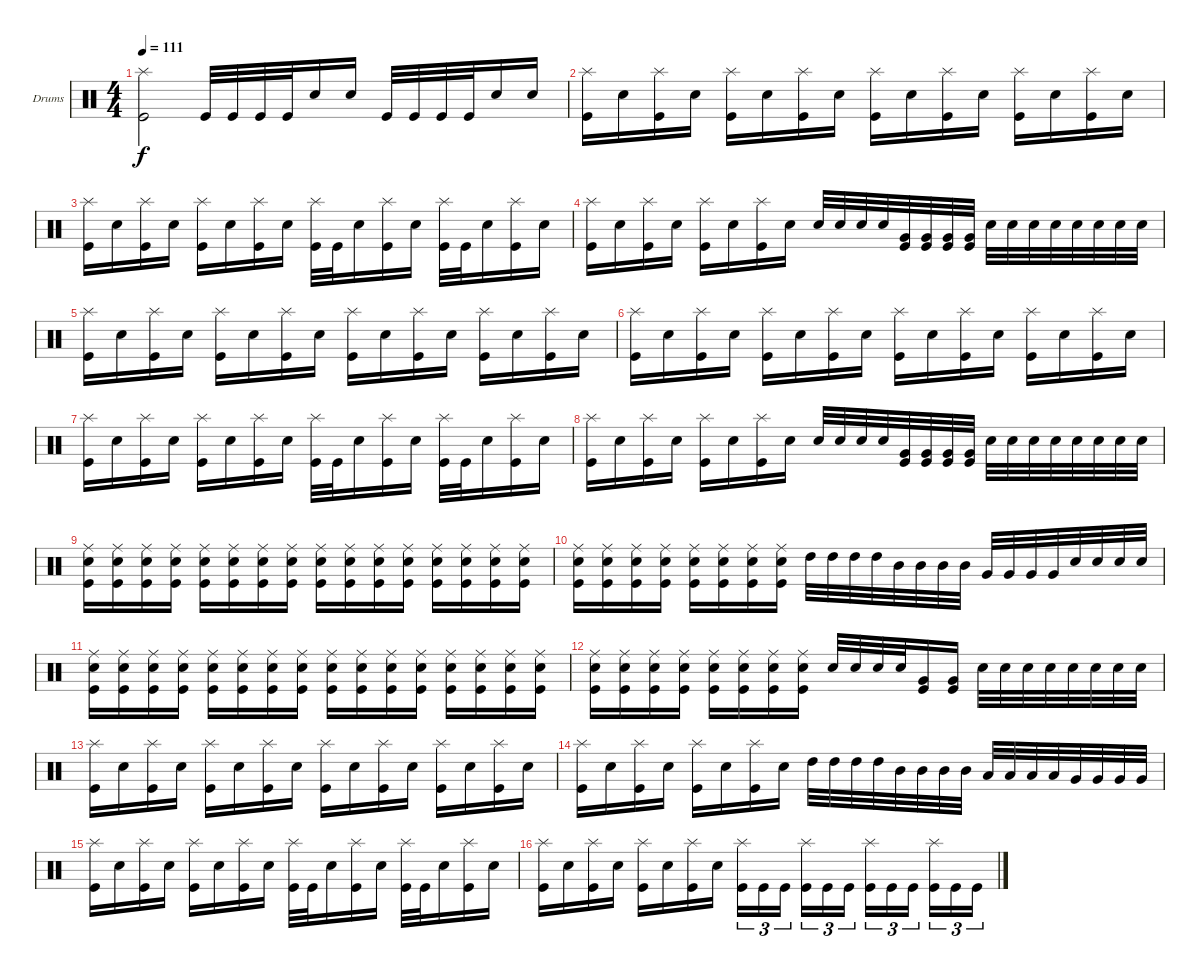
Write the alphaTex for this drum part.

\bracketExtendMode groupsimilarinstruments
\firstSystemTrackNameOrientation horizontal
\otherSystemsTrackNameOrientation horizontal
\track ("Drumkit" "Drums") {instrument percussion}
\staff {score}
\articulation defaults
\ts (4 4)
\tempo 111
\clef neutral
\ks c
("Splash (hit)" "Kick (hit)").2{dy f} "Kick (hit)".32 "Kick (hit)".32 "Kick (hit)".32 "Kick (hit)".32 "Snare (hit) 2".16 "Snare (hit) 2".16 "Kick (hit)".32 "Kick (hit)".32 "Kick (hit)".32 "Kick (hit)".32 "Snare (hit) 2".16 "Snare (hit) 2".16 |
("Splash (hit)" "Kick (hit)").16 "Snare (hit) 2".16 ("Splash (hit)" "Kick (hit)").16 "Snare (hit) 2".16 ("Splash (hit)" "Kick (hit)").16 "Snare (hit) 2".16 ("Splash (hit)" "Kick (hit)").16 "Snare (hit) 2".16 ("Splash (hit)" "Kick (hit)").16 "Snare (hit) 2".16 ("Splash (hit)" "Kick (hit)").16 "Snare (hit) 2".16 ("Splash (hit)" "Kick (hit)").16 "Snare (hit) 2".16 ("Splash (hit)" "Kick (hit)").16 "Snare (hit) 2".16 |
("Splash (hit)" "Kick (hit)").16 "Snare (hit) 2".16 ("Splash (hit)" "Kick (hit)").16 "Snare (hit) 2".16 ("Splash (hit)" "Kick (hit)").16 "Snare (hit) 2".16 ("Splash (hit)" "Kick (hit)").16 "Snare (hit) 2".16 ("Splash (hit)" "Kick (hit)").32 "Kick (hit)".32 "Snare (hit) 2".16 ("Splash (hit)" "Kick (hit)").16 "Snare (hit) 2".16 ("Splash (hit)" "Kick (hit)").32 "Kick (hit)".32 "Snare (hit) 2".16 ("Splash (hit)" "Kick (hit)").16 "Snare (hit) 2".16 |
("Splash (hit)" "Kick (hit)").16 "Snare (hit) 2".16 ("Splash (hit)" "Kick (hit)").16 "Snare (hit) 2".16 ("Splash (hit)" "Kick (hit)").16 "Snare (hit) 2".16 ("Splash (hit)" "Kick (hit)").16 "Snare (hit) 2".16 "Snare (hit) 2".32 "Snare (hit) 2".32 "Snare (hit) 2".32 "Snare (hit) 2".32 ("Very Low Tom (hit)" "Kick (hit)").32 ("Very Low Tom (hit)" "Kick (hit)").32 ("Very Low Tom (hit)" "Kick (hit)").32 ("Very Low Tom (hit)" "Kick (hit)").32 "Snare (hit) 2".32 "Snare (hit) 2".32 "Snare (hit) 2".32 "Snare (hit) 2".32 "Snare (hit) 2".32 "Snare (hit) 2".32 "Snare (hit) 2".32 "Snare (hit) 2".32 |
("Splash (hit)" "Kick (hit)").16 "Snare (hit) 2".16 ("Splash (hit)" "Kick (hit)").16 "Snare (hit) 2".16 ("Splash (hit)" "Kick (hit)").16 "Snare (hit) 2".16 ("Splash (hit)" "Kick (hit)").16 "Snare (hit) 2".16 ("Splash (hit)" "Kick (hit)").16 "Snare (hit) 2".16 ("Splash (hit)" "Kick (hit)").16 "Snare (hit) 2".16 ("Splash (hit)" "Kick (hit)").16 "Snare (hit) 2".16 ("Splash (hit)" "Kick (hit)").16 "Snare (hit) 2".16 |
("Splash (hit)" "Kick (hit)").16 "Snare (hit) 2".16 ("Splash (hit)" "Kick (hit)").16 "Snare (hit) 2".16 ("Splash (hit)" "Kick (hit)").16 "Snare (hit) 2".16 ("Splash (hit)" "Kick (hit)").16 "Snare (hit) 2".16 ("Splash (hit)" "Kick (hit)").16 "Snare (hit) 2".16 ("Splash (hit)" "Kick (hit)").16 "Snare (hit) 2".16 ("Splash (hit)" "Kick (hit)").16 "Snare (hit) 2".16 ("Splash (hit)" "Kick (hit)").16 "Snare (hit) 2".16 |
("Splash (hit)" "Kick (hit)").16 "Snare (hit) 2".16 ("Splash (hit)" "Kick (hit)").16 "Snare (hit) 2".16 ("Splash (hit)" "Kick (hit)").16 "Snare (hit) 2".16 ("Splash (hit)" "Kick (hit)").16 "Snare (hit) 2".16 ("Splash (hit)" "Kick (hit)").32 "Kick (hit)".32 "Snare (hit) 2".16 ("Splash (hit)" "Kick (hit)").16 "Snare (hit) 2".16 ("Splash (hit)" "Kick (hit)").32 "Kick (hit)".32 "Snare (hit) 2".16 ("Splash (hit)" "Kick (hit)").16 "Snare (hit) 2".16 |
("Splash (hit)" "Kick (hit)").16 "Snare (hit) 2".16 ("Splash (hit)" "Kick (hit)").16 "Snare (hit) 2".16 ("Splash (hit)" "Kick (hit)").16 "Snare (hit) 2".16 ("Splash (hit)" "Kick (hit)").16 "Snare (hit) 2".16 "Snare (hit) 2".32 "Snare (hit) 2".32 "Snare (hit) 2".32 "Snare (hit) 2".32 ("Very Low Tom (hit)" "Kick (hit)").32 ("Very Low Tom (hit)" "Kick (hit)").32 ("Very Low Tom (hit)" "Kick (hit)").32 ("Very Low Tom (hit)" "Kick (hit)").32 "Snare (hit) 2".32 "Snare (hit) 2".32 "Snare (hit) 2".32 "Snare (hit) 2".32 "Snare (hit) 2".32 "Snare (hit) 2".32 "Snare (hit) 2".32 "Snare (hit) 2".32 |
("Ride (middle)" "Snare (hit) 2" "Kick (hit)").16 ("Ride (middle)" "Snare (hit) 2" "Kick (hit)").16 ("Ride (middle)" "Snare (hit) 2" "Kick (hit)").16 ("Ride (middle)" "Snare (hit) 2" "Kick (hit)").16 ("Ride (middle)" "Snare (hit) 2" "Kick (hit)").16 ("Ride (middle)" "Snare (hit) 2" "Kick (hit)").16 ("Ride (middle)" "Snare (hit) 2" "Kick (hit)").16 ("Ride (middle)" "Snare (hit) 2" "Kick (hit)").16 ("Ride (middle)" "Snare (hit) 2" "Kick (hit)").16 ("Ride (middle)" "Snare (hit) 2" "Kick (hit)").16 ("Ride (middle)" "Snare (hit) 2" "Kick (hit)").16 ("Ride (middle)" "Snare (hit) 2" "Kick (hit)").16 ("Ride (middle)" "Snare (hit) 2" "Kick (hit)").16 ("Ride (middle)" "Snare (hit) 2" "Kick (hit)").16 ("Ride (middle)" "Snare (hit) 2" "Kick (hit)").16 ("Ride (middle)" "Snare (hit) 2" "Kick (hit)").16 |
("Ride (middle)" "Snare (hit) 2" "Kick (hit)").16 ("Ride (middle)" "Snare (hit) 2" "Kick (hit)").16 ("Ride (middle)" "Snare (hit) 2" "Kick (hit)").16 ("Ride (middle)" "Snare (hit) 2" "Kick (hit)").16 ("Ride (middle)" "Snare (hit) 2" "Kick (hit)").16 ("Ride (middle)" "Snare (hit) 2" "Kick (hit)").16 ("Ride (middle)" "Snare (hit) 2" "Kick (hit)").16 ("Ride (middle)" "Snare (hit) 2" "Kick (hit)").16 "High Tom (hit)".32 "High Tom (hit)".32 "High Tom (hit)".32 "High Tom (hit)".32 "Mid Tom (hit)".32 "Mid Tom (hit)".32 "Mid Tom (hit)".32 "Mid Tom (hit)".32 "Very Low Tom (hit)".32 "Very Low Tom (hit)".32 "Very Low Tom (hit)".32 "Very Low Tom (hit)".32 "Snare (hit) 2".32 "Snare (hit) 2".32 "Snare (hit) 2".32 "Snare (hit) 2".32 |
("Ride (middle)" "Snare (hit) 2" "Kick (hit)").16 ("Ride (middle)" "Snare (hit) 2" "Kick (hit)").16 ("Ride (middle)" "Snare (hit) 2" "Kick (hit)").16 ("Ride (middle)" "Snare (hit) 2" "Kick (hit)").16 ("Ride (middle)" "Snare (hit) 2" "Kick (hit)").16 ("Ride (middle)" "Snare (hit) 2" "Kick (hit)").16 ("Ride (middle)" "Snare (hit) 2" "Kick (hit)").16 ("Ride (middle)" "Snare (hit) 2" "Kick (hit)").16 ("Ride (middle)" "Snare (hit) 2" "Kick (hit)").16 ("Ride (middle)" "Snare (hit) 2" "Kick (hit)").16 ("Ride (middle)" "Snare (hit) 2" "Kick (hit)").16 ("Ride (middle)" "Snare (hit) 2" "Kick (hit)").16 ("Ride (middle)" "Snare (hit) 2" "Kick (hit)").16 ("Ride (middle)" "Snare (hit) 2" "Kick (hit)").16 ("Ride (middle)" "Snare (hit) 2" "Kick (hit)").16 ("Ride (middle)" "Snare (hit) 2" "Kick (hit)").16 |
("Ride (middle)" "Snare (hit) 2" "Kick (hit)").16 ("Ride (middle)" "Snare (hit) 2" "Kick (hit)").16 ("Ride (middle)" "Snare (hit) 2" "Kick (hit)").16 ("Ride (middle)" "Snare (hit) 2" "Kick (hit)").16 ("Ride (middle)" "Snare (hit) 2" "Kick (hit)").16 ("Ride (middle)" "Snare (hit) 2" "Kick (hit)").16 ("Ride (middle)" "Snare (hit) 2" "Kick (hit)").16 ("Ride (middle)" "Snare (hit) 2" "Kick (hit)").16 "Snare (hit) 2".32 "Snare (hit) 2".32 "Snare (hit) 2".32 "Snare (hit) 2".32 ("Very Low Tom (hit)" "Kick (hit)").16 ("Very Low Tom (hit)" "Kick (hit)").16 "Snare (hit) 2".32 "Snare (hit) 2".32 "Snare (hit) 2".32 "Snare (hit) 2".32 "Snare (hit) 2".32 "Snare (hit) 2".32 "Snare (hit) 2".32 "Snare (hit) 2".32 |
("Splash (hit)" "Kick (hit)").16 "Snare (hit) 2".16 ("Splash (hit)" "Kick (hit)").16 "Snare (hit) 2".16 ("Splash (hit)" "Kick (hit)").16 "Snare (hit) 2".16 ("Splash (hit)" "Kick (hit)").16 "Snare (hit) 2".16 ("Splash (hit)" "Kick (hit)").16 "Snare (hit) 2".16 ("Splash (hit)" "Kick (hit)").16 "Snare (hit) 2".16 ("Splash (hit)" "Kick (hit)").16 "Snare (hit) 2".16 ("Splash (hit)" "Kick (hit)").16 "Snare (hit) 2".16 |
("Splash (hit)" "Kick (hit)").16 "Snare (hit) 2".16 ("Splash (hit)" "Kick (hit)").16 "Snare (hit) 2".16 ("Splash (hit)" "Kick (hit)").16 "Snare (hit) 2".16 ("Splash (hit)" "Kick (hit)").16 "Snare (hit) 2".16 "High Tom (hit)".32 "High Tom (hit)".32 "High Tom (hit)".32 "High Tom (hit)".32 "Mid Tom (hit)".32 "Mid Tom (hit)".32 "Mid Tom (hit)".32 "Mid Tom (hit)".32 "Low Tom (hit)".32 "Low Tom (hit)".32 "Low Tom (hit)".32 "Low Tom (hit)".32 "Very Low Tom (hit)".32 "Very Low Tom (hit)".32 "Very Low Tom (hit)".32 "Very Low Tom (hit)".32 |
("Splash (hit)" "Kick (hit)").16 "Snare (hit) 2".16 ("Splash (hit)" "Kick (hit)").16 "Snare (hit) 2".16 ("Splash (hit)" "Kick (hit)").16 "Snare (hit) 2".16 ("Splash (hit)" "Kick (hit)").16 "Snare (hit) 2".16 ("Splash (hit)" "Kick (hit)").32 "Kick (hit)".32 "Snare (hit) 2".16 ("Splash (hit)" "Kick (hit)").16 "Snare (hit) 2".16 ("Splash (hit)" "Kick (hit)").32 "Kick (hit)".32 "Snare (hit) 2".16 ("Splash (hit)" "Kick (hit)").16 "Snare (hit) 2".16 |
("Splash (hit)" "Kick (hit)").16 "Snare (hit) 2".16 ("Splash (hit)" "Kick (hit)").16 "Snare (hit) 2".16 ("Splash (hit)" "Kick (hit)").16 "Snare (hit) 2".16 ("Splash (hit)" "Kick (hit)").16 "Snare (hit) 2".16 ("Splash (hit)" "Kick (hit)").16{tu (3 2)} "Kick (hit)".16{tu (3 2)} "Kick (hit)".16{tu (3 2)} ("Splash (hit)" "Kick (hit)").16{tu (3 2)} "Kick (hit)".16{tu (3 2)} "Kick (hit)".16{tu (3 2)} ("Splash (hit)" "Kick (hit)").16{tu (3 2)} "Kick (hit)".16{tu (3 2)} "Kick (hit)".16{tu (3 2)} ("Splash (hit)" "Kick (hit)").16{tu (3 2)} "Kick (hit)".16{tu (3 2)} "Kick (hit)".16{tu (3 2)}
